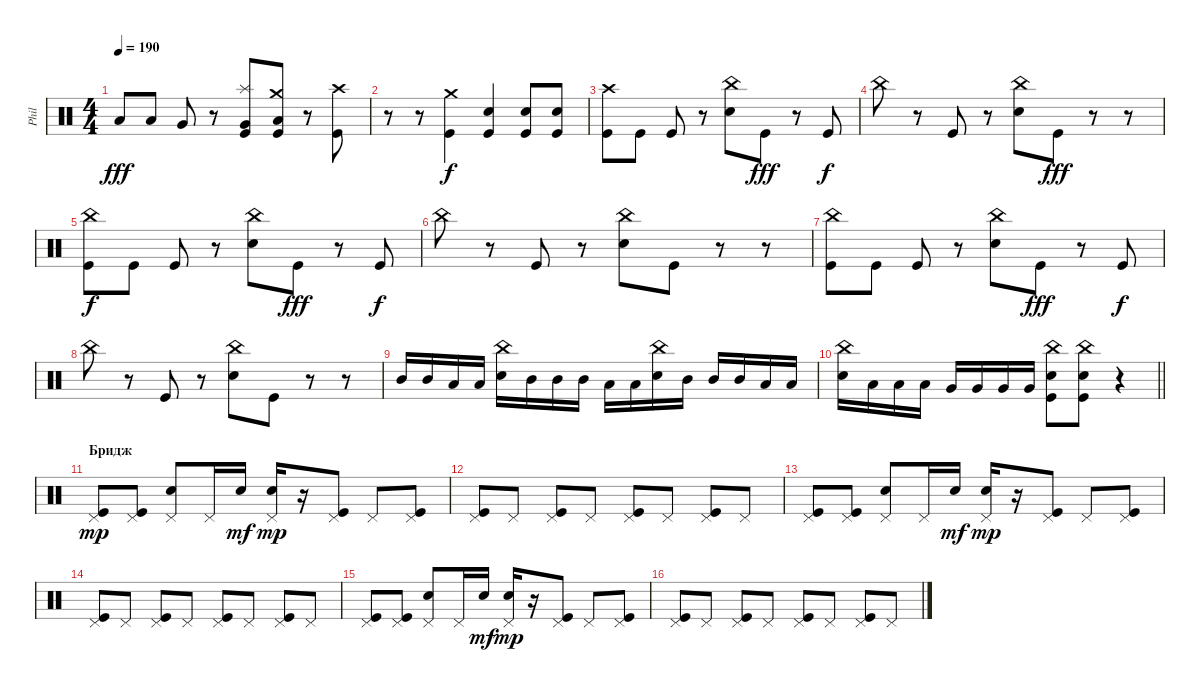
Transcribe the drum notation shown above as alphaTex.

\track ("Phil" "Phil") {instrument percussion}
\staff {score}
\articulation defaults
\ts (4 4)
\tempo 190
\clef neutral
\ks c "Low Floor Tom (hit)".8{dy fff} "Low Floor Tom (hit)".8 "Very Low Tom (hit)".8
r.8 ("Splash (hit)" "Very Low Tom (hit)" "Kick (hit)").8 ("Crash medium (hit)" "Low Tom (hit)" "Kick (hit)").8 r.8 ("Crash high (hit)" "Kick (hit)").8 |
r.8 r.8 ("Crash medium (hit)" "Kick (hit)").4{dy f} ("Electric Snare (hit)" "Kick (hit)").4 ("Electric Snare (hit)" "Kick (hit)").8 ("Electric Snare (hit)" "Kick (hit)").8 |
("Crash high (hit)" "Kick (hit)").8 "Kick (hit)".8 "Kick (hit)".8 r.8 ("China (hit)" "Electric Snare (hit)").8 "Kick (hit)".8{dy fff} r.8 "Kick (hit)".8{dy f} |
"China (hit)".8 r.8 "Kick (hit)".8 r.8 ("China (hit)" "Electric Snare (hit)").8 "Kick (hit)".8{dy fff} r.8 r.8 |
("China (hit)" "Kick (hit)").8{dy f} "Kick (hit)".8 "Kick (hit)".8 r.8 ("China (hit)" "Electric Snare (hit)").8 "Kick (hit)".8{dy fff} r.8 "Kick (hit)".8{dy f} |
"China (hit)".8 r.8 "Kick (hit)".8 r.8 ("China (hit)" "Electric Snare (hit)").8 "Kick (hit)".8 r.8 r.8 |
("China (hit)" "Kick (hit)").8 "Kick (hit)".8 "Kick (hit)".8 r.8 ("China (hit)" "Electric Snare (hit)").8 "Kick (hit)".8{dy fff} r.8 "Kick (hit)".8{dy f} |
"China (hit)".8 r.8 "Kick (hit)".8 r.8 ("China (hit)" "Electric Snare (hit)").8 "Kick (hit)".8 r.8 r.8 |
"Mid Tom (hit)".16 "Mid Tom (hit)".16 "Low Tom (hit)".16 "Low Tom (hit)".16 ("China (hit)" "Electric Snare (hit)").16 "Mid Tom (hit)".16 "Mid Tom (hit)".16 "Mid Tom (hit)".16 "Low Tom (hit)".16 "Low Tom (hit)".16 ("China (hit)" "Electric Snare (hit)").16 "Mid Tom (hit)".16 "Mid Tom (hit)".16 "Mid Tom (hit)".16 "Low Tom (hit)".16 "Low Tom (hit)".16 |
\barLineRight lightlight
("China (hit)" "Electric Snare (hit)").16 "Low Tom (hit)".16 "Low Tom (hit)".16 "Low Tom (hit)".16 "Very Low Tom (hit)".16 "Very Low Tom (hit)".16 "Very Low Tom (hit)".16 "Very Low Tom (hit)".16 ("China (hit)" "Electric Snare (hit)" "Kick (hit)").8 ("China (hit)" "Electric Snare (hit)" "Kick (hit)").8 r.4 |
\section ("" "Бридж")
("Pedal Hi-Hat (hit)" "Kick (hit)").8{dy mp} ("Pedal Hi-Hat (hit)" "Kick (hit)").8 ("Pedal Hi-Hat (hit)" "Electric Snare (hit)").8 "Pedal Hi-Hat (hit)".16 "Electric Snare (hit)".16{dy mf} ("Pedal Hi-Hat (hit)" "Electric Snare (hit)").16{dy mp} r.16 ("Pedal Hi-Hat (hit)" "Kick (hit)").8 "Pedal Hi-Hat (hit)".8 ("Pedal Hi-Hat (hit)" "Kick (hit)").8 |
("Pedal Hi-Hat (hit)" "Kick (hit)").8 "Pedal Hi-Hat (hit)".8 ("Pedal Hi-Hat (hit)" "Kick (hit)").8 "Pedal Hi-Hat (hit)".8 ("Pedal Hi-Hat (hit)" "Kick (hit)").8 "Pedal Hi-Hat (hit)".8 ("Pedal Hi-Hat (hit)" "Kick (hit)").8 "Pedal Hi-Hat (hit)".8 |
("Pedal Hi-Hat (hit)" "Kick (hit)").8 ("Pedal Hi-Hat (hit)" "Kick (hit)").8 ("Pedal Hi-Hat (hit)" "Electric Snare (hit)").8 "Pedal Hi-Hat (hit)".16 "Electric Snare (hit)".16{dy mf} ("Pedal Hi-Hat (hit)" "Electric Snare (hit)").16{dy mp} r.16 ("Pedal Hi-Hat (hit)" "Kick (hit)").8 "Pedal Hi-Hat (hit)".8 ("Pedal Hi-Hat (hit)" "Kick (hit)").8 |
("Pedal Hi-Hat (hit)" "Kick (hit)").8 "Pedal Hi-Hat (hit)".8 ("Pedal Hi-Hat (hit)" "Kick (hit)").8 "Pedal Hi-Hat (hit)".8 ("Pedal Hi-Hat (hit)" "Kick (hit)").8 "Pedal Hi-Hat (hit)".8 ("Pedal Hi-Hat (hit)" "Kick (hit)").8 "Pedal Hi-Hat (hit)".8 |
("Pedal Hi-Hat (hit)" "Kick (hit)").8 ("Pedal Hi-Hat (hit)" "Kick (hit)").8 ("Pedal Hi-Hat (hit)" "Electric Snare (hit)").8 "Pedal Hi-Hat (hit)".16 "Electric Snare (hit)".16{dy mf} ("Pedal Hi-Hat (hit)" "Electric Snare (hit)").16{dy mp} r.16 ("Pedal Hi-Hat (hit)" "Kick (hit)").8 "Pedal Hi-Hat (hit)".8 ("Pedal Hi-Hat (hit)" "Kick (hit)").8 |
("Pedal Hi-Hat (hit)" "Kick (hit)").8 "Pedal Hi-Hat (hit)".8 ("Pedal Hi-Hat (hit)" "Kick (hit)").8 "Pedal Hi-Hat (hit)".8 ("Pedal Hi-Hat (hit)" "Kick (hit)").8 "Pedal Hi-Hat (hit)".8 ("Pedal Hi-Hat (hit)" "Kick (hit)").8 "Pedal Hi-Hat (hit)".8
